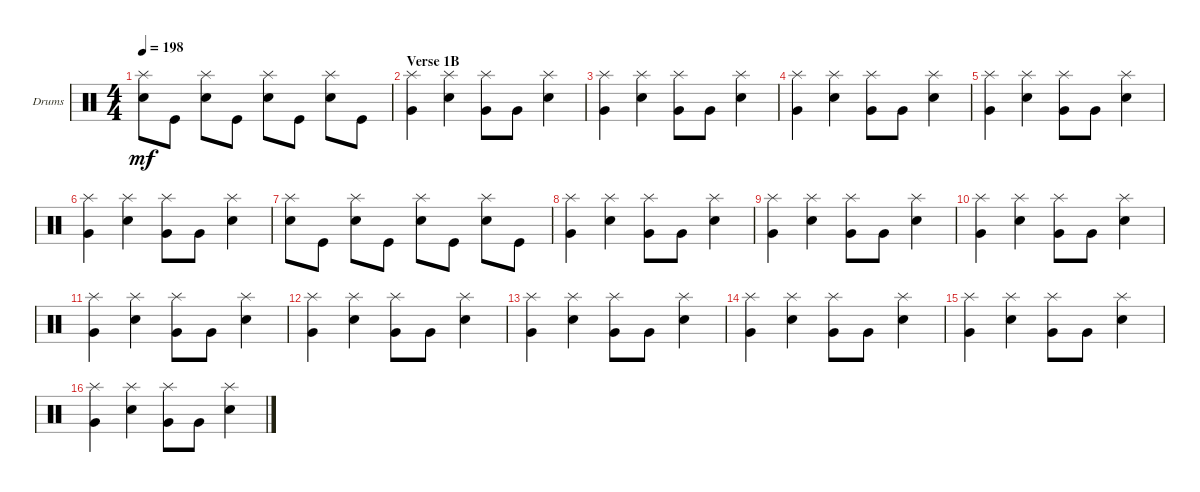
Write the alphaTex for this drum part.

\bracketExtendMode groupsimilarinstruments
\firstSystemTrackNameOrientation horizontal
\otherSystemsTrackNameOrientation horizontal
\track ("Drumkit" "Drums") {instrument percussion}
\staff {score}
\articulation defaults
\ts (4 4)
\tempo 198
\clef neutral
\ks c
("Snare (hit) 2" "Splash (hit)").8{dy mf} "Kick (hit)".8 ("Snare (hit) 2" "Splash (hit)").8 "Kick (hit)".8 ("Snare (hit) 2" "Splash (hit)").8 "Kick (hit)".8 ("Snare (hit) 2" "Splash (hit)").8 "Kick (hit)".8 |
\section ("" "Verse 1B")
("Very Low Tom (hit)" "Splash (hit)").4 ("Splash (hit)" "Snare (hit) 2").4 ("Very Low Tom (hit)" "Splash (hit)").8 "Very Low Tom (hit)".8 ("Splash (hit)" "Snare (hit) 2").4 |
("Very Low Tom (hit)" "Splash (hit)").4 ("Splash (hit)" "Snare (hit) 2").4 ("Very Low Tom (hit)" "Splash (hit)").8 "Very Low Tom (hit)".8 ("Splash (hit)" "Snare (hit) 2").4 |
("Very Low Tom (hit)" "Splash (hit)").4 ("Splash (hit)" "Snare (hit) 2").4 ("Very Low Tom (hit)" "Splash (hit)").8 "Very Low Tom (hit)".8 ("Splash (hit)" "Snare (hit) 2").4 |
("Very Low Tom (hit)" "Splash (hit)").4 ("Splash (hit)" "Snare (hit) 2").4 ("Very Low Tom (hit)" "Splash (hit)").8 "Very Low Tom (hit)".8 ("Splash (hit)" "Snare (hit) 2").4 |
("Very Low Tom (hit)" "Splash (hit)").4 ("Splash (hit)" "Snare (hit) 2").4 ("Very Low Tom (hit)" "Splash (hit)").8 "Very Low Tom (hit)".8 ("Splash (hit)" "Snare (hit) 2").4 |
("Snare (hit) 2" "Splash (hit)").8 "Kick (hit)".8 ("Snare (hit) 2" "Splash (hit)").8 "Kick (hit)".8 ("Snare (hit) 2" "Splash (hit)").8 "Kick (hit)".8 ("Snare (hit) 2" "Splash (hit)").8 "Kick (hit)".8 |
("Very Low Tom (hit)" "Splash (hit)").4 ("Splash (hit)" "Snare (hit) 2").4 ("Very Low Tom (hit)" "Splash (hit)").8 "Very Low Tom (hit)".8 ("Splash (hit)" "Snare (hit) 2").4 |
("Very Low Tom (hit)" "Splash (hit)").4 ("Splash (hit)" "Snare (hit) 2").4 ("Very Low Tom (hit)" "Splash (hit)").8 "Very Low Tom (hit)".8 ("Splash (hit)" "Snare (hit) 2").4 |
("Very Low Tom (hit)" "Splash (hit)").4 ("Splash (hit)" "Snare (hit) 2").4 ("Very Low Tom (hit)" "Splash (hit)").8 "Very Low Tom (hit)".8 ("Splash (hit)" "Snare (hit) 2").4 |
("Very Low Tom (hit)" "Splash (hit)").4 ("Splash (hit)" "Snare (hit) 2").4 ("Very Low Tom (hit)" "Splash (hit)").8 "Very Low Tom (hit)".8 ("Splash (hit)" "Snare (hit) 2").4 |
("Very Low Tom (hit)" "Splash (hit)").4 ("Splash (hit)" "Snare (hit) 2").4 ("Very Low Tom (hit)" "Splash (hit)").8 "Very Low Tom (hit)".8 ("Splash (hit)" "Snare (hit) 2").4 |
("Very Low Tom (hit)" "Splash (hit)").4 ("Splash (hit)" "Snare (hit) 2").4 ("Very Low Tom (hit)" "Splash (hit)").8 "Very Low Tom (hit)".8 ("Splash (hit)" "Snare (hit) 2").4 |
("Very Low Tom (hit)" "Splash (hit)").4 ("Splash (hit)" "Snare (hit) 2").4 ("Very Low Tom (hit)" "Splash (hit)").8 "Very Low Tom (hit)".8 ("Splash (hit)" "Snare (hit) 2").4 |
("Very Low Tom (hit)" "Splash (hit)").4 ("Splash (hit)" "Snare (hit) 2").4 ("Very Low Tom (hit)" "Splash (hit)").8 "Very Low Tom (hit)".8 ("Splash (hit)" "Snare (hit) 2").4 |
("Very Low Tom (hit)" "Splash (hit)").4 ("Splash (hit)" "Snare (hit) 2").4 ("Very Low Tom (hit)" "Splash (hit)").8 "Very Low Tom (hit)".8 ("Splash (hit)" "Snare (hit) 2").4
